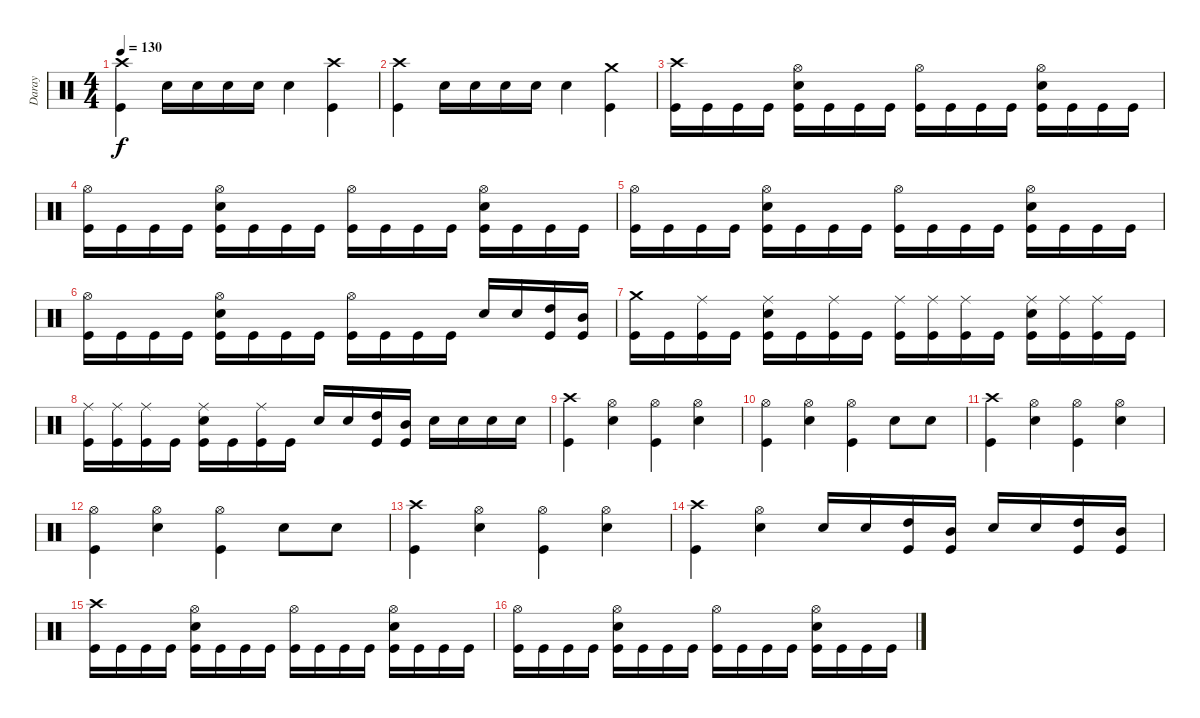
\track ("Daray" "Daray") {instrument percussion}
\staff {score}
\articulation defaults
\ts (4 4)
\tempo 130
\clef neutral
\ks c
("Crash high (hit)" "Kick (hit)").4{dy f} "Electric Snare (hit)".16 "Electric Snare (hit)".16 "Electric Snare (hit)".16 "Electric Snare (hit)".16 "Electric Snare (hit)".4 ("Crash high (hit)" "Kick (hit)").4 |
("Crash high (hit)" "Kick (hit)").4 "Electric Snare (hit)".16 "Electric Snare (hit)".16 "Electric Snare (hit)".16 "Electric Snare (hit)".16 "Electric Snare (hit)".4 ("Crash medium (hit)" "Kick (hit)").4 |
("Crash high (hit)" "Kick (hit)").16 "Kick (hit)".16 "Kick (hit)".16 "Kick (hit)".16 ("Hi-Hat (open)" "Electric Snare (hit)" "Kick (hit)").16 "Kick (hit)".16 "Kick (hit)".16 "Kick (hit)".16 ("Hi-Hat (open)" "Kick (hit)").16 "Kick (hit)".16 "Kick (hit)".16 "Kick (hit)".16 ("Hi-Hat (open)" "Electric Snare (hit)" "Kick (hit)").16 "Kick (hit)".16 "Kick (hit)".16 "Kick (hit)".16 |
("Hi-Hat (open)" "Kick (hit)").16 "Kick (hit)".16 "Kick (hit)".16 "Kick (hit)".16 ("Hi-Hat (open)" "Electric Snare (hit)" "Kick (hit)").16 "Kick (hit)".16 "Kick (hit)".16 "Kick (hit)".16 ("Hi-Hat (open)" "Kick (hit)").16 "Kick (hit)".16 "Kick (hit)".16 "Kick (hit)".16 ("Hi-Hat (open)" "Electric Snare (hit)" "Kick (hit)").16 "Kick (hit)".16 "Kick (hit)".16 "Kick (hit)".16 |
("Hi-Hat (open)" "Kick (hit)").16 "Kick (hit)".16 "Kick (hit)".16 "Kick (hit)".16 ("Hi-Hat (open)" "Electric Snare (hit)" "Kick (hit)").16 "Kick (hit)".16 "Kick (hit)".16 "Kick (hit)".16 ("Hi-Hat (open)" "Kick (hit)").16 "Kick (hit)".16 "Kick (hit)".16 "Kick (hit)".16 ("Hi-Hat (open)" "Electric Snare (hit)" "Kick (hit)").16 "Kick (hit)".16 "Kick (hit)".16 "Kick (hit)".16 |
("Hi-Hat (open)" "Kick (hit)").16 "Kick (hit)".16 "Kick (hit)".16 "Kick (hit)".16 ("Hi-Hat (open)" "Electric Snare (hit)" "Kick (hit)").16 "Kick (hit)".16 "Kick (hit)".16 "Kick (hit)".16 ("Hi-Hat (open)" "Kick (hit)").16 "Kick (hit)".16 "Kick (hit)".16 "Kick (hit)".16 "Electric Snare (hit)".16 "Electric Snare (hit)".16 ("High Tom (hit)" "Kick (hit)").16 ("Mid Tom (hit)" "Kick (hit)").16 |
("Crash medium (hit)" "Kick (hit)").16 "Kick (hit)".16 ("Ride (middle)" "Kick (hit)").16 "Kick (hit)".16 ("Ride (middle)" "Electric Snare (hit)" "Kick (hit)").16 "Kick (hit)".16 ("Ride (middle)" "Kick (hit)").16 "Kick (hit)".16 ("Ride (middle)" "Kick (hit)").16 ("Ride (middle)" "Kick (hit)").16 ("Ride (middle)" "Kick (hit)").16 "Kick (hit)".16 ("Ride (middle)" "Electric Snare (hit)" "Kick (hit)").16 ("Ride (middle)" "Kick (hit)").16 ("Ride (middle)" "Kick (hit)").16 "Kick (hit)".16 |
("Ride (middle)" "Kick (hit)").16 ("Ride (middle)" "Kick (hit)").16 ("Ride (middle)" "Kick (hit)").16 "Kick (hit)".16 ("Ride (middle)" "Electric Snare (hit)" "Kick (hit)").16 "Kick (hit)".16 ("Ride (middle)" "Kick (hit)").16 "Kick (hit)".16 "Electric Snare (hit)".16 "Electric Snare (hit)".16 ("High Tom (hit)" "Kick (hit)").16 ("Mid Tom (hit)" "Kick (hit)").16 "Electric Snare (hit)".16 "Electric Snare (hit)".16 "Electric Snare (hit)".16 "Electric Snare (hit)".16 |
("Crash high (hit)" "Kick (hit)").4 ("Hi-Hat (open)" "Electric Snare (hit)").4 ("Hi-Hat (open)" "Kick (hit)").4 ("Hi-Hat (open)" "Electric Snare (hit)").4 |
("Hi-Hat (open)" "Kick (hit)").4 ("Hi-Hat (open)" "Electric Snare (hit)").4 ("Hi-Hat (open)" "Kick (hit)").4 "Electric Snare (hit)".8 "Electric Snare (hit)".8 |
("Crash high (hit)" "Kick (hit)").4 ("Hi-Hat (open)" "Electric Snare (hit)").4 ("Hi-Hat (open)" "Kick (hit)").4 ("Hi-Hat (open)" "Electric Snare (hit)").4 |
("Hi-Hat (open)" "Kick (hit)").4 ("Hi-Hat (open)" "Electric Snare (hit)").4 ("Hi-Hat (open)" "Kick (hit)").4 "Electric Snare (hit)".8 "Electric Snare (hit)".8 |
("Crash high (hit)" "Kick (hit)").4 ("Hi-Hat (open)" "Electric Snare (hit)").4 ("Hi-Hat (open)" "Kick (hit)").4 ("Hi-Hat (open)" "Electric Snare (hit)").4 |
("Crash high (hit)" "Kick (hit)").4 ("Hi-Hat (open)" "Electric Snare (hit)").4 "Electric Snare (hit)".16 "Electric Snare (hit)".16 ("High Tom (hit)" "Kick (hit)").16 ("Mid Tom (hit)" "Kick (hit)").16 "Electric Snare (hit)".16 "Electric Snare (hit)".16 ("High Tom (hit)" "Kick (hit)").16 ("Mid Tom (hit)" "Kick (hit)").16 |
("Crash high (hit)" "Kick (hit)").16 "Kick (hit)".16 "Kick (hit)".16 "Kick (hit)".16 ("Hi-Hat (open)" "Electric Snare (hit)" "Kick (hit)").16 "Kick (hit)".16 "Kick (hit)".16 "Kick (hit)".16 ("Hi-Hat (open)" "Kick (hit)").16 "Kick (hit)".16 "Kick (hit)".16 "Kick (hit)".16 ("Hi-Hat (open)" "Electric Snare (hit)" "Kick (hit)").16 "Kick (hit)".16 "Kick (hit)".16 "Kick (hit)".16 |
("Hi-Hat (open)" "Kick (hit)").16 "Kick (hit)".16 "Kick (hit)".16 "Kick (hit)".16 ("Hi-Hat (open)" "Electric Snare (hit)" "Kick (hit)").16 "Kick (hit)".16 "Kick (hit)".16 "Kick (hit)".16 ("Hi-Hat (open)" "Kick (hit)").16 "Kick (hit)".16 "Kick (hit)".16 "Kick (hit)".16 ("Hi-Hat (open)" "Electric Snare (hit)" "Kick (hit)").16 "Kick (hit)".16 "Kick (hit)".16 "Kick (hit)".16
